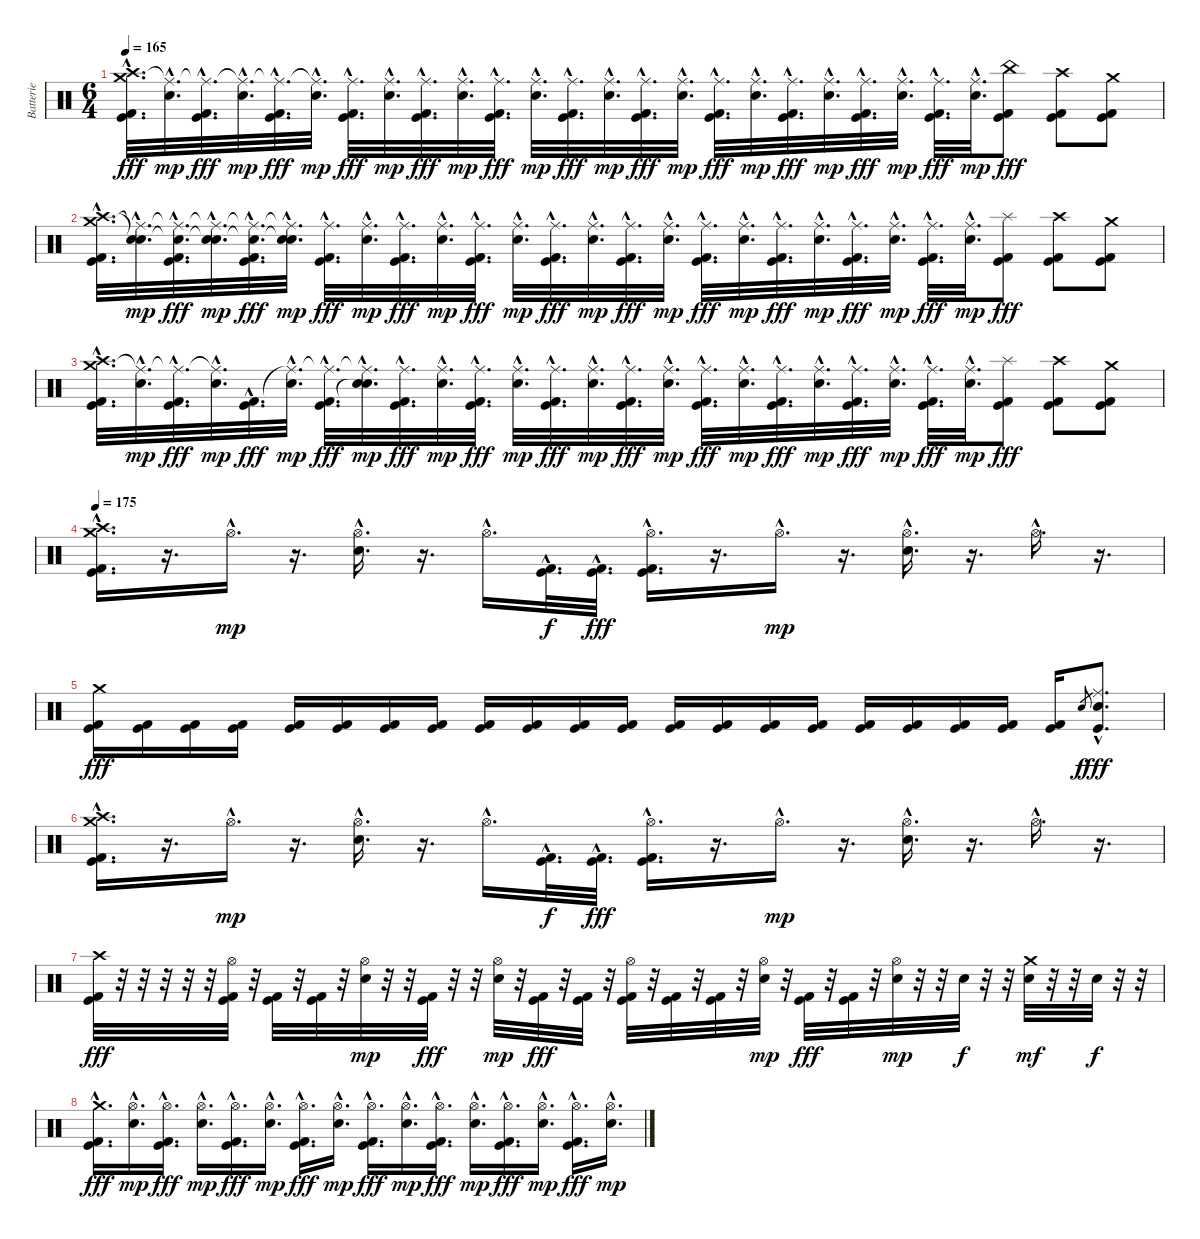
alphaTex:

\track ("Batterie" "Batterie") {instrument percussion}
\staff {score}
\articulation defaults
\ts (6 4)
\tempo 165
\clef neutral
\ks c
("Crash medium (hit)"{hac} "Crash high (hit)"{hac} "Kick (hit) 2"{hac} "Kick (hit)"{hac}).32{d dy fff} ("Ride (middle)"{hac t} "Electric Snare (hit)"{hac}).32{d dy mp} ("Ride (middle)"{hac t} "Kick (hit) 2"{hac} "Kick (hit)"{hac}).32{d dy fff} ("Ride (middle)"{hac t} "Electric Snare (hit)"{hac}).32{d dy mp} ("Ride (middle)"{hac t} "Kick (hit) 2"{hac} "Kick (hit)"{hac}).32{d dy fff} ("Ride (middle)"{hac t} "Electric Snare (hit)"{hac}).32{d dy mp} ("Ride (middle)"{hac} "Kick (hit) 2"{hac} "Kick (hit)"{hac}).32{d dy fff} ("Ride (middle)"{hac} "Electric Snare (hit)"{hac}).32{d dy mp} ("Ride (middle)"{hac} "Kick (hit) 2"{hac} "Kick (hit)"{hac}).32{d dy fff} ("Ride (middle)"{hac} "Electric Snare (hit)"{hac}).32{d dy mp} ("Ride (middle)"{hac} "Kick (hit) 2"{hac} "Kick (hit)"{hac}).32{d dy fff} ("Ride (middle)"{hac} "Electric Snare (hit)"{hac}).32{d dy mp} ("Ride (middle)"{hac} "Kick (hit) 2"{hac} "Kick (hit)"{hac}).32{d dy fff} ("Ride (middle)"{hac} "Electric Snare (hit)"{hac}).32{d dy mp} ("Ride (middle)"{hac} "Kick (hit) 2"{hac} "Kick (hit)"{hac}).32{d dy fff} ("Ride (middle)"{hac} "Electric Snare (hit)"{hac}).32{d dy mp} ("Ride (middle)"{hac} "Kick (hit) 2"{hac} "Kick (hit)"{hac}).32{d dy fff} ("Ride (middle)"{hac} "Electric Snare (hit)"{hac}).32{d dy mp} ("Ride (middle)"{hac} "Kick (hit) 2"{hac} "Kick (hit)"{hac}).32{d dy fff} ("Ride (middle)"{hac} "Electric Snare (hit)"{hac}).32{d dy mp} ("Ride (middle)"{hac} "Kick (hit) 2"{hac} "Kick (hit)"{hac}).32{d dy fff} ("Ride (middle)"{hac} "Electric Snare (hit)"{hac}).32{d dy mp} ("Ride (middle)"{hac} "Kick (hit) 2"{hac} "Kick (hit)"{hac}).32{d dy fff} ("Ride (middle)"{hac} "Electric Snare (hit)"{hac}).32{d dy mp} ("China (hit)" "Kick (hit)" "Kick (hit) 2").8{dy fff} ("Crash high (hit)" "Kick (hit)" "Kick (hit) 2").8 ("Crash medium (hit)" "Kick (hit)" "Kick (hit) 2").8 |
("Crash medium (hit)"{hac} "Crash high (hit)"{hac} "Kick (hit) 2"{hac} "Kick (hit)"{hac}).32{d} ("Ride (middle)"{hac t} "Snare (hit)"{hac t} "Electric Snare (hit)"{hac}).32{d dy mp} ("Ride (middle)"{hac t} "Snare (hit)"{hac t} "Kick (hit) 2"{hac} "Kick (hit)"{hac}).32{d dy fff} ("Ride (middle)"{hac t} "Snare (hit)"{hac t} "Electric Snare (hit)"{hac}).32{d dy mp} ("Ride (middle)"{hac t} "Snare (hit)"{hac t} "Kick (hit) 2"{hac} "Kick (hit)"{hac}).32{d dy fff} ("Ride (middle)"{hac t} "Snare (hit)"{hac t} "Electric Snare (hit)"{hac}).32{d dy mp} ("Ride (middle)"{hac} "Kick (hit) 2"{hac} "Kick (hit)"{hac}).32{d dy fff} ("Ride (middle)"{hac} "Electric Snare (hit)"{hac}).32{d dy mp} ("Ride (middle)"{hac} "Kick (hit) 2"{hac} "Kick (hit)"{hac}).32{d dy fff} ("Ride (middle)"{hac} "Electric Snare (hit)"{hac}).32{d dy mp} ("Ride (middle)"{hac} "Kick (hit) 2"{hac} "Kick (hit)"{hac}).32{d dy fff} ("Ride (middle)"{hac} "Electric Snare (hit)"{hac}).32{d dy mp} ("Ride (middle)"{hac} "Kick (hit) 2"{hac} "Kick (hit)"{hac}).32{d dy fff} ("Ride (middle)"{hac} "Electric Snare (hit)"{hac}).32{d dy mp} ("Ride (middle)"{hac} "Kick (hit) 2"{hac} "Kick (hit)"{hac}).32{d dy fff} ("Ride (middle)"{hac} "Electric Snare (hit)"{hac}).32{d dy mp} ("Ride (middle)"{hac} "Kick (hit) 2"{hac} "Kick (hit)"{hac}).32{d dy fff} ("Ride (middle)"{hac} "Electric Snare (hit)"{hac}).32{d dy mp} ("Ride (middle)"{hac} "Kick (hit) 2"{hac} "Kick (hit)"{hac}).32{d dy fff} ("Ride (middle)"{hac} "Electric Snare (hit)"{hac}).32{d dy mp} ("Ride (middle)"{hac} "Kick (hit) 2"{hac} "Kick (hit)"{hac}).32{d dy fff} ("Ride (middle)"{hac} "Electric Snare (hit)"{hac}).32{d dy mp} ("Ride (middle)"{hac} "Kick (hit) 2"{hac} "Kick (hit)"{hac}).32{d dy fff} ("Ride (middle)"{hac} "Electric Snare (hit)"{hac}).32{d dy mp} ("Splash (hit)" "Kick (hit)" "Kick (hit) 2").8{dy fff} ("Crash high (hit)" "Kick (hit)" "Kick (hit) 2").8 ("Crash medium (hit)" "Kick (hit)" "Kick (hit) 2").8 |
("Crash medium (hit)"{hac} "Crash high (hit)"{hac} "Kick (hit) 2"{hac} "Kick (hit)"{hac}).32{d} ("Ride (middle)"{hac t} "Electric Snare (hit)"{hac}).32{d dy mp} ("Ride (middle)"{hac t} "Kick (hit) 2"{hac} "Kick (hit)"{hac}).32{d dy fff} ("Ride (middle)"{hac t} "Electric Snare (hit)"{hac}).32{d dy mp} ("Kick (hit) 2"{hac} "Kick (hit)"{hac}).32{d dy fff} ("Ride (middle)"{hac t} "Electric Snare (hit)"{hac}).32{d dy mp} ("Ride (middle)"{hac t} "Kick (hit) 2"{hac} "Kick (hit)"{hac}).32{d dy fff} ("Ride (middle)"{hac t} "Snare (hit)"{hac t} "Electric Snare (hit)"{hac}).32{d dy mp} ("Ride (middle)"{hac} "Kick (hit) 2"{hac} "Kick (hit)"{hac}).32{d dy fff} ("Ride (middle)"{hac} "Electric Snare (hit)"{hac}).32{d dy mp} ("Ride (middle)"{hac} "Kick (hit) 2"{hac} "Kick (hit)"{hac}).32{d dy fff} ("Ride (middle)"{hac} "Electric Snare (hit)"{hac}).32{d dy mp} ("Ride (middle)"{hac} "Kick (hit) 2"{hac} "Kick (hit)"{hac}).32{d dy fff} ("Ride (middle)"{hac} "Electric Snare (hit)"{hac}).32{d dy mp} ("Ride (middle)"{hac} "Kick (hit) 2"{hac} "Kick (hit)"{hac}).32{d dy fff} ("Ride (middle)"{hac} "Electric Snare (hit)"{hac}).32{d dy mp} ("Ride (middle)"{hac} "Kick (hit) 2"{hac} "Kick (hit)"{hac}).32{d dy fff} ("Ride (middle)"{hac} "Electric Snare (hit)"{hac}).32{d dy mp} ("Ride (middle)"{hac} "Kick (hit) 2"{hac} "Kick (hit)"{hac}).32{d dy fff} ("Ride (middle)"{hac} "Electric Snare (hit)"{hac}).32{d dy mp} ("Ride (middle)"{hac} "Kick (hit) 2"{hac} "Kick (hit)"{hac}).32{d dy fff} ("Ride (middle)"{hac} "Electric Snare (hit)"{hac}).32{d dy mp} ("Ride (middle)"{hac} "Kick (hit) 2"{hac} "Kick (hit)"{hac}).32{d dy fff} ("Ride (middle)"{hac} "Electric Snare (hit)"{hac}).32{d dy mp} ("Splash (hit)" "Kick (hit)" "Kick (hit) 2").8{dy fff} ("Crash high (hit)" "Kick (hit)" "Kick (hit) 2").8 ("Crash medium (hit)" "Kick (hit)" "Kick (hit) 2").8 |
\tempo 175
("Crash medium (hit)"{hac} "Crash high (hit)"{hac} "Kick (hit)"{hac} "Kick (hit) 2"{hac}).16{d} r.16{d} "Hi-Hat (open)"{hac}.16{d dy mp} r.16{d} ("Hi-Hat (open)"{hac} "Electric Snare (hit)"{hac}).16{d} r.16{d} "Hi-Hat (open)"{hac}.16{d} ("Kick (hit)"{hac} "Kick (hit) 2"{hac}).32{d dy f} ("Kick (hit)"{hac} "Kick (hit) 2"{hac}).32{d dy fff} ("Hi-Hat (open)"{hac} "Kick (hit)"{hac} "Kick (hit) 2"{hac}).16{d} r.16{d} "Hi-Hat (open)"{hac}.16{d dy mp} r.16{d} ("Hi-Hat (open)"{hac} "Electric Snare (hit)"{hac}).16{d} r.16{d} "Hi-Hat (open)"{hac}.16{d} r.16{d} |
("Crash medium (hit)" "Kick (hit) 2" "Kick (hit)").16{dy fff} ("Kick (hit) 2" "Kick (hit)").16 ("Kick (hit) 2" "Kick (hit)").16 ("Kick (hit) 2" "Kick (hit)").16 ("Kick (hit) 2" "Kick (hit)").16 ("Kick (hit) 2" "Kick (hit)").16 ("Kick (hit) 2" "Kick (hit)").16 ("Kick (hit) 2" "Kick (hit)").16 ("Kick (hit) 2" "Kick (hit)").16 ("Kick (hit) 2" "Kick (hit)").16 ("Kick (hit) 2" "Kick (hit)").16 ("Kick (hit) 2" "Kick (hit)").16 ("Kick (hit) 2" "Kick (hit)").16 ("Kick (hit) 2" "Kick (hit)").16 ("Kick (hit) 2" "Kick (hit)").16 ("Kick (hit) 2" "Kick (hit)").16 ("Kick (hit) 2" "Kick (hit)").16 ("Kick (hit) 2" "Kick (hit)").16 ("Kick (hit) 2" "Kick (hit)").16 ("Kick (hit) 2" "Kick (hit)").16 ("Kick (hit) 2" "Kick (hit)").16 "Electric Snare (hit)".8{gr dy f} ("Ride (middle)"{hac} "Electric Snare (hit)"{hac} "Kick (hit)"{hac}).8{d dy fff} |
("Crash medium (hit)"{hac} "Crash high (hit)"{hac} "Kick (hit)"{hac} "Kick (hit) 2"{hac}).16{d} r.16{d} "Hi-Hat (open)"{hac}.16{d dy mp} r.16{d} ("Hi-Hat (open)"{hac} "Electric Snare (hit)"{hac}).16{d} r.16{d} "Hi-Hat (open)"{hac}.16{d} ("Kick (hit)"{hac} "Kick (hit) 2"{hac}).32{d dy f} ("Kick (hit)"{hac} "Kick (hit) 2"{hac}).32{d dy fff} ("Hi-Hat (open)"{hac} "Kick (hit)"{hac} "Kick (hit) 2"{hac}).16{d} r.16{d} "Hi-Hat (open)"{hac}.16{d dy mp} r.16{d} ("Hi-Hat (open)"{hac} "Electric Snare (hit)"{hac}).16{d} r.16{d} "Hi-Hat (open)"{hac}.16{d} r.16{d} |
("Crash high (hit)" "Kick (hit) 2" "Kick (hit)").32{dy fff} r.32 r.32 r.32 r.32 r.32 ("Hi-Hat (open)" "Kick (hit) 2" "Kick (hit)").32 r.32 ("Kick (hit) 2" "Kick (hit)").32 r.32 ("Kick (hit) 2" "Kick (hit)").32 r.32 ("Hi-Hat (open)" "Electric Snare (hit)").32{dy mp} r.32 r.32 ("Kick (hit) 2" "Kick (hit)").32{dy fff} r.32 r.32 ("Hi-Hat (open)" "Electric Snare (hit)").32{dy mp} r.32 ("Kick (hit) 2" "Kick (hit)").32{dy fff} r.32 ("Kick (hit) 2" "Kick (hit)").32 r.32 ("Hi-Hat (open)" "Kick (hit) 2" "Kick (hit)").32 r.32 ("Kick (hit) 2" "Kick (hit)").32 r.32 ("Kick (hit) 2" "Kick (hit)").32 r.32 ("Hi-Hat (open)" "Electric Snare (hit)").32{dy mp} r.32 ("Kick (hit) 2" "Kick (hit)").32{dy fff} r.32 ("Kick (hit) 2" "Kick (hit)").32 r.32 ("Hi-Hat (open)" "Electric Snare (hit)").32{dy mp} r.32 r.32 "Electric Snare (hit)".32{dy f} r.32 r.32 ("Crash medium (hit)" "Electric Snare (hit)").32{dy mf} r.32 r.32 "Electric Snare (hit)".32{dy f} r.32 r.32 |
("Crash medium (hit)"{hac} "Kick (hit) 2"{hac} "Kick (hit)"{hac}).16{d dy fff} ("Hi-Hat (open)"{hac} "Electric Snare (hit)"{hac}).16{d dy mp} ("Hi-Hat (open)"{hac} "Kick (hit) 2"{hac} "Kick (hit)"{hac}).16{d dy fff} ("Hi-Hat (open)"{hac} "Electric Snare (hit)"{hac}).16{d dy mp} ("Hi-Hat (open)"{hac} "Kick (hit) 2"{hac} "Kick (hit)"{hac}).16{d dy fff} ("Hi-Hat (open)"{hac} "Electric Snare (hit)"{hac}).16{d dy mp} ("Hi-Hat (open)"{hac} "Kick (hit) 2"{hac} "Kick (hit)"{hac}).16{d dy fff} ("Hi-Hat (open)"{hac} "Electric Snare (hit)"{hac}).16{d dy mp} ("Hi-Hat (open)"{hac} "Kick (hit) 2"{hac} "Kick (hit)"{hac}).16{d dy fff} ("Hi-Hat (open)"{hac} "Electric Snare (hit)"{hac}).16{d dy mp} ("Hi-Hat (open)"{hac} "Kick (hit) 2"{hac} "Kick (hit)"{hac}).16{d dy fff} ("Hi-Hat (open)"{hac} "Electric Snare (hit)"{hac}).16{d dy mp} ("Hi-Hat (open)"{hac} "Kick (hit) 2"{hac} "Kick (hit)"{hac}).16{d dy fff} ("Hi-Hat (open)"{hac} "Electric Snare (hit)"{hac}).16{d dy mp} ("Hi-Hat (open)"{hac} "Kick (hit) 2"{hac} "Kick (hit)"{hac}).16{d dy fff} ("Hi-Hat (open)"{hac} "Electric Snare (hit)"{hac}).16{d dy mp}
